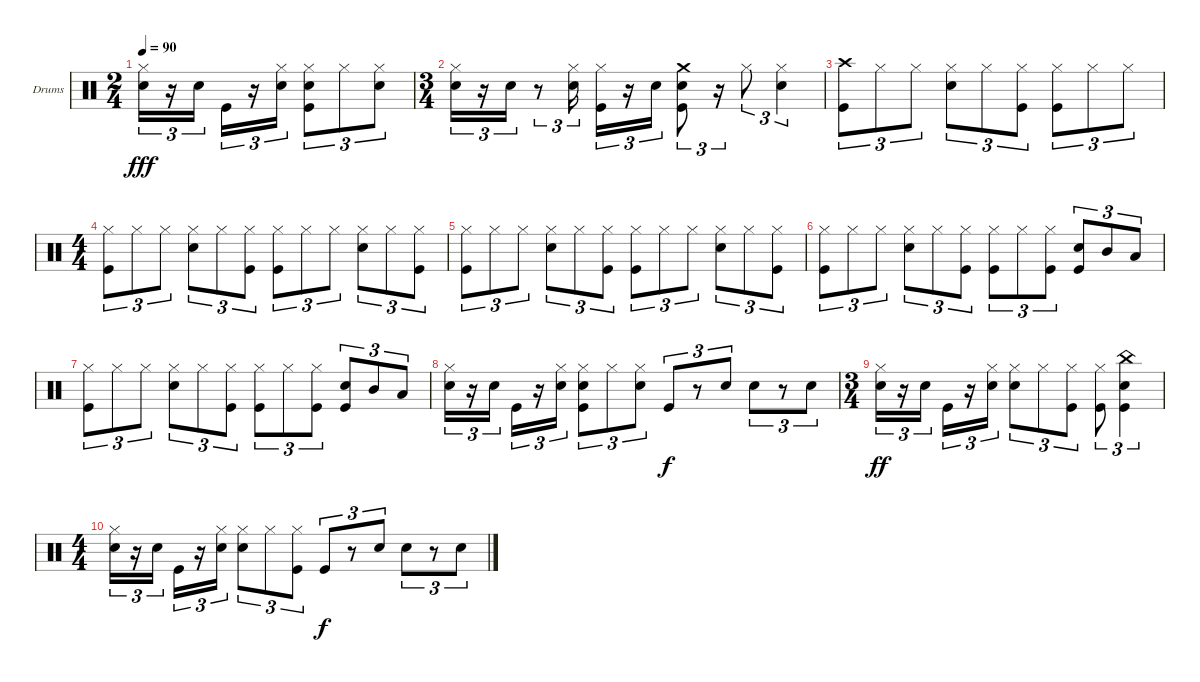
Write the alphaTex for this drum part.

\defaultSystemsLayout 4
\bracketExtendMode groupsimilarinstruments
\firstSystemTrackNameOrientation horizontal
\otherSystemsTrackNameOrientation horizontal
\track ("Drumkit" "Drums") {instrument percussion}
\staff {score}
\articulation defaults
\ts (2 4)
\tempo 90
\clef neutral
\ks c
("Hi-Hat (closed)" "Snare (hit) 2").16{tu (3 2) dy fff} r.16{tu (3 2)} "Snare (hit) 2".16{tu (3 2)} "Kick (hit)".16{tu (3 2)} r.16{tu (3 2)} ("Snare (hit) 2" "Hi-Hat (closed)").16{tu (3 2)} ("Kick (hit)" "Hi-Hat (closed)" "Snare (hit) 2").8{tu (3 2)} "Hi-Hat (closed)".8{tu (3 2)} ("Hi-Hat (closed)" "Snare (hit) 2").8{tu (3 2)} |
\ts (3 4)
("Hi-Hat (closed)" "Snare (hit) 2").16{tu (3 2)} r.16{tu (3 2)} "Snare (hit) 2".16{tu (3 2)} r.8{tu (3 2)} ("Snare (hit) 2" "Hi-Hat (closed)").16{tu (3 2)} ("Hi-Hat (closed)" "Kick (hit)").16{tu (3 2)} r.16{tu (3 2)} "Snare (hit) 2".16{tu (3 2)} ("Kick (hit)" "Snare (hit) 2" "Crash medium (hit)").8{tu (3 2)} r.16{tu (3 2)} "Hi-Hat (closed)".8{tu (3 2)} ("Hi-Hat (closed)" "Snare (hit) 2").4{tu (3 2)} |
("Kick (hit)" "Crash high (hit)").8{tu (3 2)} "Hi-Hat (closed)".8{tu (3 2)} "Hi-Hat (closed)".8{tu (3 2)} ("Hi-Hat (closed)" "Snare (hit) 2").8{tu (3 2)} "Hi-Hat (closed)".8{tu (3 2)} ("Hi-Hat (closed)" "Kick (hit)").8{tu (3 2)} ("Hi-Hat (closed)" "Kick (hit)").8{tu (3 2)} "Hi-Hat (closed)".8{tu (3 2)} "Hi-Hat (closed)".8{tu (3 2)} |
\ts (4 4)
("Hi-Hat (closed)" "Kick (hit)").8{tu (3 2)} "Hi-Hat (closed)".8{tu (3 2)} "Hi-Hat (closed)".8{tu (3 2)} ("Hi-Hat (closed)" "Snare (hit) 2").8{tu (3 2)} "Hi-Hat (closed)".8{tu (3 2)} ("Hi-Hat (closed)" "Kick (hit)").8{tu (3 2)} ("Hi-Hat (closed)" "Kick (hit)").8{tu (3 2)} "Hi-Hat (closed)".8{tu (3 2)} "Hi-Hat (closed)".8{tu (3 2)} ("Hi-Hat (closed)" "Snare (hit) 2").8{tu (3 2)} "Hi-Hat (closed)".8{tu (3 2)} ("Hi-Hat (closed)" "Kick (hit)").8{tu (3 2)} |
("Hi-Hat (closed)" "Kick (hit)").8{tu (3 2)} "Hi-Hat (closed)".8{tu (3 2)} "Hi-Hat (closed)".8{tu (3 2)} ("Hi-Hat (closed)" "Snare (hit) 2").8{tu (3 2)} "Hi-Hat (closed)".8{tu (3 2)} ("Hi-Hat (closed)" "Kick (hit)").8{tu (3 2)} ("Hi-Hat (closed)" "Kick (hit)").8{tu (3 2)} "Hi-Hat (closed)".8{tu (3 2)} "Hi-Hat (closed)".8{tu (3 2)} ("Hi-Hat (closed)" "Snare (hit) 2").8{tu (3 2)} "Hi-Hat (closed)".8{tu (3 2)} ("Hi-Hat (closed)" "Kick (hit)").8{tu (3 2)} |
("Hi-Hat (closed)" "Kick (hit)").8{tu (3 2)} "Hi-Hat (closed)".8{tu (3 2)} "Hi-Hat (closed)".8{tu (3 2)} ("Hi-Hat (closed)" "Snare (hit) 2").8{tu (3 2)} "Hi-Hat (closed)".8{tu (3 2)} ("Hi-Hat (closed)" "Kick (hit)").8{tu (3 2)} ("Hi-Hat (closed)" "Kick (hit)").8{tu (3 2)} "Hi-Hat (closed)".8{tu (3 2)} ("Hi-Hat (closed)" "Kick (hit)").8{tu (3 2)} ("Snare (hit) 2" "Kick (hit)").8{tu (3 2)} "Mid Tom (hit)".8{tu (3 2)} "Low Tom (hit)".8{tu (3 2)} |
("Hi-Hat (closed)" "Kick (hit)").8{tu (3 2)} "Hi-Hat (closed)".8{tu (3 2)} "Hi-Hat (closed)".8{tu (3 2)} ("Hi-Hat (closed)" "Snare (hit) 2").8{tu (3 2)} "Hi-Hat (closed)".8{tu (3 2)} ("Hi-Hat (closed)" "Kick (hit)").8{tu (3 2)} ("Hi-Hat (closed)" "Kick (hit)").8{tu (3 2)} "Hi-Hat (closed)".8{tu (3 2)} ("Hi-Hat (closed)" "Kick (hit)").8{tu (3 2)} ("Snare (hit) 2" "Kick (hit)").8{tu (3 2)} "Mid Tom (hit)".8{tu (3 2)} "Low Tom (hit)".8{tu (3 2)} |
("Hi-Hat (closed)" "Snare (hit) 2").16{tu (3 2)} r.16{tu (3 2)} "Snare (hit) 2".16{tu (3 2)} "Kick (hit)".16{tu (3 2)} r.16{tu (3 2)} ("Snare (hit) 2" "Hi-Hat (closed)").16{tu (3 2)} ("Kick (hit)" "Hi-Hat (closed)" "Snare (hit) 2").8{tu (3 2)} "Hi-Hat (closed)".8{tu (3 2)} ("Hi-Hat (closed)" "Snare (hit) 2").8{tu (3 2)} "Kick (hit)".8{tu (3 2) dy f} r.8{tu (3 2)} "Snare (hit) 2".8{tu (3 2)} "Snare (hit) 2".8{tu (3 2)} r.8{tu (3 2)} "Snare (hit) 2".8{tu (3 2)} |
\ts (3 4)
("Hi-Hat (closed)" "Snare (hit) 2").16{tu (3 2) dy ff} r.16{tu (3 2)} "Snare (hit) 2".16{tu (3 2)} "Kick (hit)".16{tu (3 2)} r.16{tu (3 2)} ("Snare (hit) 2" "Hi-Hat (closed)").16{tu (3 2)} ("Hi-Hat (closed)" "Snare (hit) 2").8{tu (3 2)} "Hi-Hat (closed)".8{tu (3 2)} ("Hi-Hat (closed)" "Kick (hit)").8{tu (3 2)} ("Hi-Hat (closed)" "Kick (hit)").8{tu (3 2)} ("Kick (hit)" "Snare (hit) 2" "China (hit)").4{tu (3 2)} |
\ts (4 4)
("Hi-Hat (closed)" "Snare (hit) 2").16{tu (3 2)} r.16{tu (3 2)} "Snare (hit) 2".16{tu (3 2)} "Kick (hit)".16{tu (3 2)} r.16{tu (3 2)} ("Snare (hit) 2" "Hi-Hat (closed)").16{tu (3 2)} ("Hi-Hat (closed)" "Snare (hit) 2").8{tu (3 2)} "Hi-Hat (closed)".8{tu (3 2)} ("Hi-Hat (closed)" "Kick (hit)").8{tu (3 2)} "Kick (hit)".8{tu (3 2) dy f} r.8{tu (3 2)} "Snare (hit) 2".8{tu (3 2)} "Snare (hit) 2".8{tu (3 2)} r.8{tu (3 2)} "Snare (hit) 2".8{tu (3 2)}
